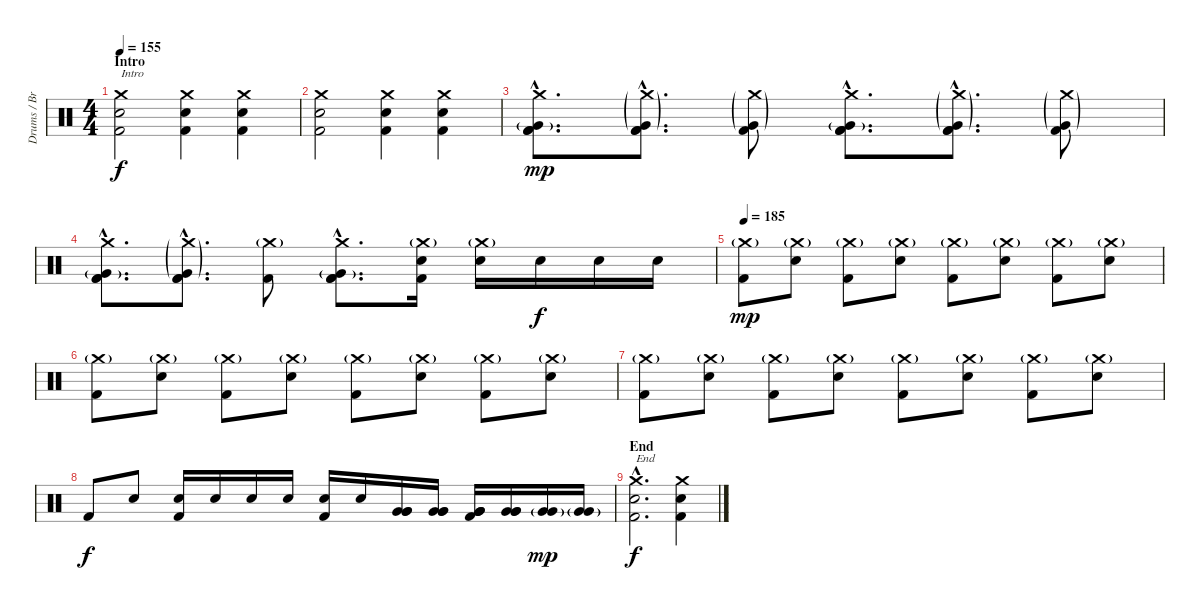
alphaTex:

\track ("Drums / Brett" "Drums / Br") {instrument percussion}
\staff {score}
\articulation defaults
\ts (4 4)
\section ("" "Intro")
\tempo 155
\clef neutral
\ks c
("Crash medium (hit)" "Snare (hit) 2" "Kick (hit) 2").2{txt "Intro" dy f} ("Crash medium (hit)" "Snare (hit) 2" "Kick (hit) 2").4 ("Crash medium (hit)" "Snare (hit) 2" "Kick (hit) 2").4 |
("Crash medium (hit)" "Snare (hit) 2" "Kick (hit) 2").2 ("Crash medium (hit)" "Snare (hit) 2" "Kick (hit) 2").4 ("Crash medium (hit)" "Snare (hit) 2" "Kick (hit) 2").4 |
("Crash medium (hit)"{hac} "Very Low Tom (hit)"{g hac} "Kick (hit) 2"{hac} "Kick (hit) 2"{hac}).8{d dy mp} ("Crash medium (hit)"{g hac} "Very Low Tom (hit)"{g hac} "Kick (hit) 2"{hac} "Kick (hit) 2"{hac}).8{d} ("Crash medium (hit)"{g} "Very Low Tom (hit)"{g} "Kick (hit) 2").8 ("Crash medium (hit)"{hac} "Very Low Tom (hit)"{g hac} "Kick (hit) 2"{hac} "Kick (hit) 2"{hac}).8{d} ("Crash medium (hit)"{g hac} "Very Low Tom (hit)"{g hac} "Kick (hit) 2"{hac} "Kick (hit) 2"{hac}).8{d} ("Crash medium (hit)"{g} "Very Low Tom (hit)"{g} "Kick (hit) 2").8 |
("Crash medium (hit)"{hac} "Very Low Tom (hit)"{g hac} "Kick (hit) 2"{hac} "Kick (hit) 2"{hac}).8{d} ("Crash medium (hit)"{g hac} "Very Low Tom (hit)"{g hac} "Kick (hit) 2"{hac} "Kick (hit) 2"{hac}).8{d} ("Crash medium (hit)"{g} "Kick (hit) 2").8 ("Crash medium (hit)"{hac} "Very Low Tom (hit)"{g hac} "Kick (hit) 2"{hac} "Kick (hit) 2"{hac}).8{d} ("Crash medium (hit)"{g} "Snare (hit) 2" "Kick (hit) 2").16 ("Crash medium (hit)"{g} "Snare (hit) 2").16 "Snare (hit) 2".16{dy f} "Snare (hit) 2".16 "Snare (hit) 2".16 |
\tempo 185
("Crash medium (hit)"{g} "Kick (hit) 2").8{dy mp} ("Crash medium (hit)"{g} "Snare (hit) 2").8 ("Crash medium (hit)"{g} "Kick (hit) 2").8 ("Crash medium (hit)"{g} "Snare (hit) 2").8 ("Crash medium (hit)"{g} "Kick (hit) 2").8 ("Crash medium (hit)"{g} "Snare (hit) 2").8 ("Crash medium (hit)"{g} "Kick (hit) 2").8 ("Crash medium (hit)"{g} "Snare (hit) 2").8 |
("Crash medium (hit)"{g} "Kick (hit) 2").8 ("Crash medium (hit)"{g} "Snare (hit) 2").8 ("Crash medium (hit)"{g} "Kick (hit) 2").8 ("Crash medium (hit)"{g} "Snare (hit) 2").8 ("Crash medium (hit)"{g} "Kick (hit) 2").8 ("Crash medium (hit)"{g} "Snare (hit) 2").8 ("Crash medium (hit)"{g} "Kick (hit) 2").8 ("Crash medium (hit)"{g} "Snare (hit) 2").8 |
("Crash medium (hit)"{g} "Kick (hit) 2").8 ("Crash medium (hit)"{g} "Snare (hit) 2").8 ("Crash medium (hit)"{g} "Kick (hit) 2").8 ("Crash medium (hit)"{g} "Snare (hit) 2").8 ("Crash medium (hit)"{g} "Kick (hit) 2").8 ("Crash medium (hit)"{g} "Snare (hit) 2").8 ("Crash medium (hit)"{g} "Kick (hit) 2").8 ("Crash medium (hit)"{g} "Snare (hit) 2").8 |
"Kick (hit) 2".8{dy f} "Snare (hit) 2".8 ("Snare (hit) 2" "Kick (hit) 2").16 "Snare (hit) 2".16 "Snare (hit) 2".16 "Snare (hit) 2".16 ("Snare (hit) 2" "Kick (hit) 2").16 "Snare (hit) 2".16 ("Very Low Tom (hit)" "Very Low Tom (hit)" "Very Low Tom (hit)").16 ("Very Low Tom (hit)" "Very Low Tom (hit)" "Very Low Tom (hit)").16 ("Very Low Tom (hit)" "Very Low Tom (hit)" "Very Low Tom (hit)" "Kick (hit) 2").16 ("Very Low Tom (hit)" "Very Low Tom (hit)" "Very Low Tom (hit)").16 ("Very Low Tom (hit)" "Very Low Tom (hit)"{g}).16{dy mp} ("Very Low Tom (hit)" "Very Low Tom (hit)"{g}).16 |
\section ("" "End")
("Crash medium (hit)"{hac} "Snare (hit) 2"{hac} "Kick (hit) 2"{hac}).2{d txt "End" dy f} ("Crash medium (hit)" "Snare (hit) 2" "Kick (hit) 2").4
